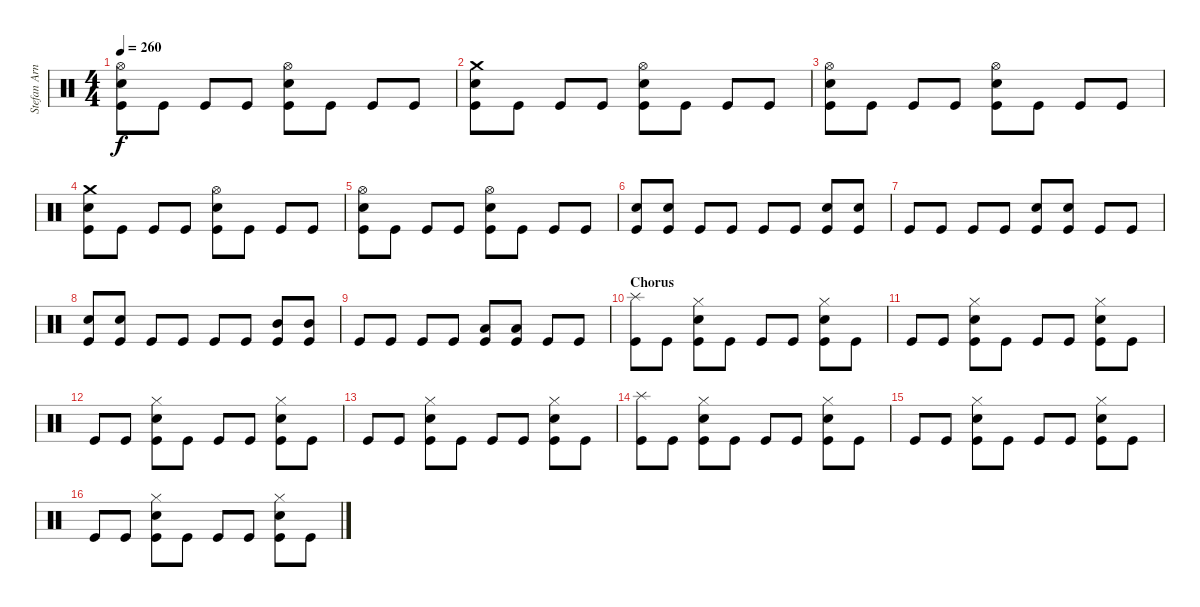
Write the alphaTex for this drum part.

\track ("Stefan Arnold" "Stefan Arn") {instrument percussion}
\staff {score}
\articulation defaults
\ts (4 4)
\tempo 260
\clef neutral
\ks c
("Hi-Hat (open)" "Electric Snare (hit)" "Kick (hit)").8{dy f} "Kick (hit)".8 "Kick (hit)".8 "Kick (hit)".8 ("Hi-Hat (open)" "Electric Snare (hit)" "Kick (hit)").8 "Kick (hit)".8 "Kick (hit)".8 "Kick (hit)".8 |
("Crash medium (hit)" "Electric Snare (hit)" "Kick (hit)").8 "Kick (hit)".8 "Kick (hit)".8 "Kick (hit)".8 ("Hi-Hat (open)" "Electric Snare (hit)" "Kick (hit)").8 "Kick (hit)".8 "Kick (hit)".8 "Kick (hit)".8 |
("Hi-Hat (open)" "Electric Snare (hit)" "Kick (hit)").8 "Kick (hit)".8 "Kick (hit)".8 "Kick (hit)".8 ("Hi-Hat (open)" "Electric Snare (hit)" "Kick (hit)").8 "Kick (hit)".8 "Kick (hit)".8 "Kick (hit)".8 |
("Crash medium (hit)" "Electric Snare (hit)" "Kick (hit)").8 "Kick (hit)".8 "Kick (hit)".8 "Kick (hit)".8 ("Hi-Hat (open)" "Electric Snare (hit)" "Kick (hit)").8 "Kick (hit)".8 "Kick (hit)".8 "Kick (hit)".8 |
("Hi-Hat (open)" "Electric Snare (hit)" "Kick (hit)").8 "Kick (hit)".8 "Kick (hit)".8 "Kick (hit)".8 ("Hi-Hat (open)" "Electric Snare (hit)" "Kick (hit)").8 "Kick (hit)".8 "Kick (hit)".8 "Kick (hit)".8 |
("Electric Snare (hit)" "Kick (hit)").8 ("Electric Snare (hit)" "Kick (hit)").8 "Kick (hit)".8 "Kick (hit)".8 "Kick (hit)".8 "Kick (hit)".8 ("Electric Snare (hit)" "Kick (hit)").8 ("Electric Snare (hit)" "Kick (hit)").8 |
"Kick (hit)".8 "Kick (hit)".8 "Kick (hit)".8 "Kick (hit)".8 ("Electric Snare (hit)" "Kick (hit)").8 ("Electric Snare (hit)" "Kick (hit)").8 "Kick (hit)".8 "Kick (hit)".8 |
("Electric Snare (hit)" "Kick (hit)").8 ("Electric Snare (hit)" "Kick (hit)").8 "Kick (hit)".8 "Kick (hit)".8 "Kick (hit)".8 "Kick (hit)".8 ("Mid Tom (hit)" "Kick (hit)").8 ("Mid Tom (hit)" "Kick (hit)").8 |
"Kick (hit)".8 "Kick (hit)".8 "Kick (hit)".8 "Kick (hit)".8 ("Low Tom (hit)" "Kick (hit)").8 ("Low Tom (hit)" "Kick (hit)").8 "Kick (hit)".8 "Kick (hit)".8 |
\section ("" "Chorus")
("Splash (hit)" "Kick (hit)").8 "Kick (hit)".8 ("Hi-Hat (closed)" "Electric Snare (hit)" "Kick (hit)").8 "Kick (hit)".8 "Kick (hit)".8 "Kick (hit)".8 ("Hi-Hat (closed)" "Electric Snare (hit)" "Kick (hit)").8 "Kick (hit)".8 |
"Kick (hit)".8 "Kick (hit)".8 ("Hi-Hat (closed)" "Electric Snare (hit)" "Kick (hit)").8 "Kick (hit)".8 "Kick (hit)".8 "Kick (hit)".8 ("Hi-Hat (closed)" "Electric Snare (hit)" "Kick (hit)").8 "Kick (hit)".8 |
"Kick (hit)".8 "Kick (hit)".8 ("Hi-Hat (closed)" "Electric Snare (hit)" "Kick (hit)").8 "Kick (hit)".8 "Kick (hit)".8 "Kick (hit)".8 ("Hi-Hat (closed)" "Electric Snare (hit)" "Kick (hit)").8 "Kick (hit)".8 |
"Kick (hit)".8 "Kick (hit)".8 ("Hi-Hat (closed)" "Electric Snare (hit)" "Kick (hit)").8 "Kick (hit)".8 "Kick (hit)".8 "Kick (hit)".8 ("Hi-Hat (closed)" "Electric Snare (hit)" "Kick (hit)").8 "Kick (hit)".8 |
("Splash (hit)" "Kick (hit)").8 "Kick (hit)".8 ("Hi-Hat (closed)" "Electric Snare (hit)" "Kick (hit)").8 "Kick (hit)".8 "Kick (hit)".8 "Kick (hit)".8 ("Hi-Hat (closed)" "Electric Snare (hit)" "Kick (hit)").8 "Kick (hit)".8 |
"Kick (hit)".8 "Kick (hit)".8 ("Hi-Hat (closed)" "Electric Snare (hit)" "Kick (hit)").8 "Kick (hit)".8 "Kick (hit)".8 "Kick (hit)".8 ("Hi-Hat (closed)" "Electric Snare (hit)" "Kick (hit)").8 "Kick (hit)".8 |
"Kick (hit)".8 "Kick (hit)".8 ("Hi-Hat (closed)" "Electric Snare (hit)" "Kick (hit)").8 "Kick (hit)".8 "Kick (hit)".8 "Kick (hit)".8 ("Hi-Hat (closed)" "Electric Snare (hit)" "Kick (hit)").8 "Kick (hit)".8
